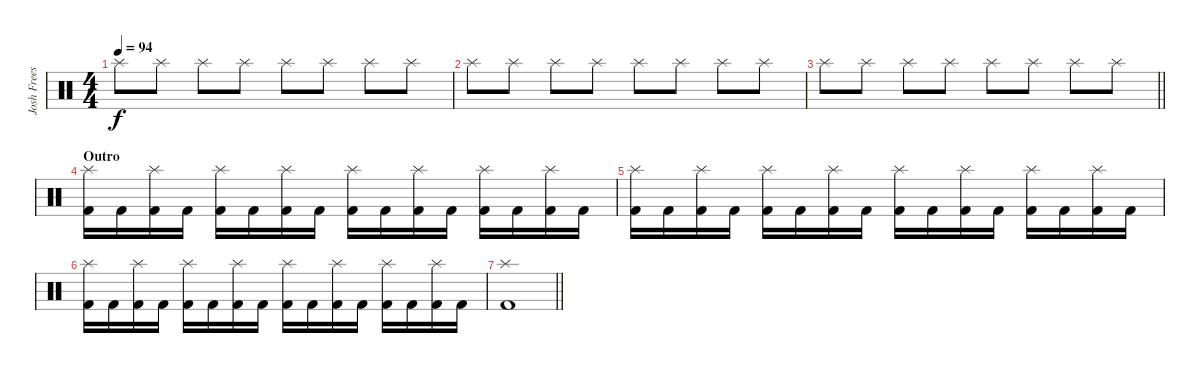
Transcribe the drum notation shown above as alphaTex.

\track ("Josh Freese (Studio Drummer)" "Josh Frees") {instrument percussion}
\staff {score}
\articulation defaults
\ts (4 4)
\tempo 94
\clef neutral
\ks c "Splash (hit)".8{dy f} "Splash (hit)".8 "Splash (hit)".8 "Splash (hit)".8 "Splash (hit)".8 "Splash (hit)".8 "Splash (hit)".8 "Splash (hit)".8
|
"Splash (hit)".8 "Splash (hit)".8 "Splash (hit)".8 "Splash (hit)".8 "Splash (hit)".8 "Splash (hit)".8 "Splash (hit)".8 "Splash (hit)".8 |
\barLineRight lightlight "Splash (hit)".8 "Splash (hit)".8 "Splash (hit)".8 "Splash (hit)".8 "Splash (hit)".8 "Splash (hit)".8 "Splash (hit)".8 "Splash (hit)".8
|
\section ("" "Outro")
("Splash (hit)" "Kick (hit) 2").16 "Kick (hit) 2".16 ("Splash (hit)" "Kick (hit) 2").16 "Kick (hit) 2".16 ("Splash (hit)" "Kick (hit) 2").16 "Kick (hit) 2".16 ("Splash (hit)" "Kick (hit) 2").16 "Kick (hit) 2".16 ("Splash (hit)" "Kick (hit) 2").16 "Kick (hit) 2".16 ("Splash (hit)" "Kick (hit) 2").16 "Kick (hit) 2".16 ("Splash (hit)" "Kick (hit) 2").16 "Kick (hit) 2".16 ("Splash (hit)" "Kick (hit) 2").16 "Kick (hit) 2".16 |
("Splash (hit)" "Kick (hit) 2").16 "Kick (hit) 2".16 ("Splash (hit)" "Kick (hit) 2").16 "Kick (hit) 2".16 ("Splash (hit)" "Kick (hit) 2").16 "Kick (hit) 2".16 ("Splash (hit)" "Kick (hit) 2").16 "Kick (hit) 2".16 ("Splash (hit)" "Kick (hit) 2").16 "Kick (hit) 2".16 ("Splash (hit)" "Kick (hit) 2").16 "Kick (hit) 2".16 ("Splash (hit)" "Kick (hit) 2").16 "Kick (hit) 2".16 ("Splash (hit)" "Kick (hit) 2").16 "Kick (hit) 2".16 |
("Splash (hit)" "Kick (hit) 2").16 "Kick (hit) 2".16 ("Splash (hit)" "Kick (hit) 2").16 "Kick (hit) 2".16 ("Splash (hit)" "Kick (hit) 2").16 "Kick (hit) 2".16 ("Splash (hit)" "Kick (hit) 2").16 "Kick (hit) 2".16 ("Splash (hit)" "Kick (hit) 2").16 "Kick (hit) 2".16 ("Splash (hit)" "Kick (hit) 2").16 "Kick (hit) 2".16 ("Splash (hit)" "Kick (hit) 2").16 "Kick (hit) 2".16 ("Splash (hit)" "Kick (hit) 2").16 "Kick (hit) 2".16 |
\barLineRight lightlight
("Splash (hit)" "Kick (hit) 2").1
